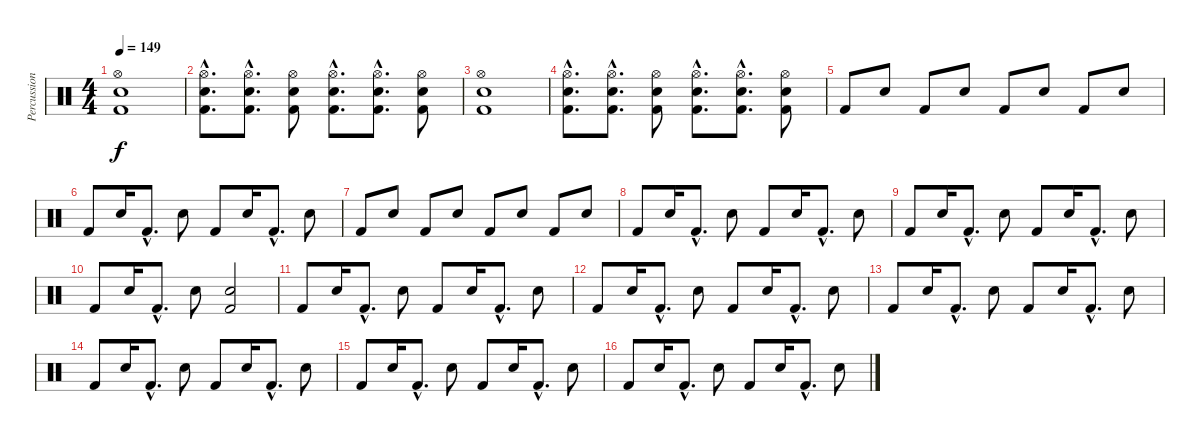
\track ("Percussion" "Percussion") {instrument percussion}
\staff {score}
\articulation defaults
\ts (4 4)
\tempo 149
\clef neutral
\ks c
("Hi-Hat (open)" "Snare (hit) 2" "Kick (hit) 2").1{dy f} |
("Hi-Hat (open)"{hac} "Snare (hit) 2"{hac} "Kick (hit) 2"{hac}).8{d} ("Hi-Hat (open)"{hac} "Snare (hit) 2"{hac} "Kick (hit) 2"{hac}).8{d} ("Hi-Hat (open)" "Snare (hit) 2" "Kick (hit) 2").8 ("Hi-Hat (open)"{hac} "Snare (hit) 2"{hac} "Kick (hit) 2"{hac}).8{d} ("Hi-Hat (open)"{hac} "Snare (hit) 2"{hac} "Kick (hit) 2"{hac}).8{d} ("Hi-Hat (open)" "Snare (hit) 2" "Kick (hit) 2").8 |
("Hi-Hat (open)" "Snare (hit) 2" "Kick (hit) 2").1 |
("Hi-Hat (open)"{hac} "Snare (hit) 2"{hac} "Kick (hit) 2"{hac}).8{d} ("Hi-Hat (open)"{hac} "Snare (hit) 2"{hac} "Kick (hit) 2"{hac}).8{d} ("Hi-Hat (open)" "Snare (hit) 2" "Kick (hit) 2").8 ("Hi-Hat (open)"{hac} "Snare (hit) 2"{hac} "Kick (hit) 2"{hac}).8{d} ("Hi-Hat (open)"{hac} "Snare (hit) 2"{hac} "Kick (hit) 2"{hac}).8{d} ("Hi-Hat (open)" "Snare (hit) 2" "Kick (hit) 2").8 |
"Kick (hit) 2".8 "Snare (hit) 2".8 "Kick (hit) 2".8 "Snare (hit) 2".8 "Kick (hit) 2".8 "Snare (hit) 2".8 "Kick (hit) 2".8 "Snare (hit) 2".8 |
"Kick (hit) 2".8 "Snare (hit) 2".16 "Kick (hit) 2"{hac}.8{d} "Snare (hit) 2".8 "Kick (hit) 2".8 "Snare (hit) 2".16 "Kick (hit) 2"{hac}.8{d} "Snare (hit) 2".8 |
"Kick (hit) 2".8 "Snare (hit) 2".8 "Kick (hit) 2".8 "Snare (hit) 2".8 "Kick (hit) 2".8 "Snare (hit) 2".8 "Kick (hit) 2".8 "Snare (hit) 2".8 |
"Kick (hit) 2".8 "Snare (hit) 2".16 "Kick (hit) 2"{hac}.8{d} "Snare (hit) 2".8 "Kick (hit) 2".8 "Snare (hit) 2".16 "Kick (hit) 2"{hac}.8{d} "Snare (hit) 2".8 |
"Kick (hit) 2".8 "Snare (hit) 2".16 "Kick (hit) 2"{hac}.8{d} "Snare (hit) 2".8 "Kick (hit) 2".8 "Snare (hit) 2".16 "Kick (hit) 2"{hac}.8{d} "Snare (hit) 2".8 |
"Kick (hit) 2".8 "Snare (hit) 2".16 "Kick (hit) 2"{hac}.8{d} "Snare (hit) 2".8 ("Snare (hit) 2" "Kick (hit) 2").2 |
"Kick (hit) 2".8 "Snare (hit) 2".16 "Kick (hit) 2"{hac}.8{d} "Snare (hit) 2".8 "Kick (hit) 2".8 "Snare (hit) 2".16 "Kick (hit) 2"{hac}.8{d} "Snare (hit) 2".8 |
"Kick (hit) 2".8 "Snare (hit) 2".16 "Kick (hit) 2"{hac}.8{d} "Snare (hit) 2".8 "Kick (hit) 2".8 "Snare (hit) 2".16 "Kick (hit) 2"{hac}.8{d} "Snare (hit) 2".8 |
"Kick (hit) 2".8 "Snare (hit) 2".16 "Kick (hit) 2"{hac}.8{d} "Snare (hit) 2".8 "Kick (hit) 2".8 "Snare (hit) 2".16 "Kick (hit) 2"{hac}.8{d} "Snare (hit) 2".8 |
"Kick (hit) 2".8 "Snare (hit) 2".16 "Kick (hit) 2"{hac}.8{d} "Snare (hit) 2".8 "Kick (hit) 2".8 "Snare (hit) 2".16 "Kick (hit) 2"{hac}.8{d} "Snare (hit) 2".8 |
"Kick (hit) 2".8 "Snare (hit) 2".16 "Kick (hit) 2"{hac}.8{d} "Snare (hit) 2".8 "Kick (hit) 2".8 "Snare (hit) 2".16 "Kick (hit) 2"{hac}.8{d} "Snare (hit) 2".8 |
"Kick (hit) 2".8 "Snare (hit) 2".16 "Kick (hit) 2"{hac}.8{d} "Snare (hit) 2".8 "Kick (hit) 2".8 "Snare (hit) 2".16 "Kick (hit) 2"{hac}.8{d} "Snare (hit) 2".8
